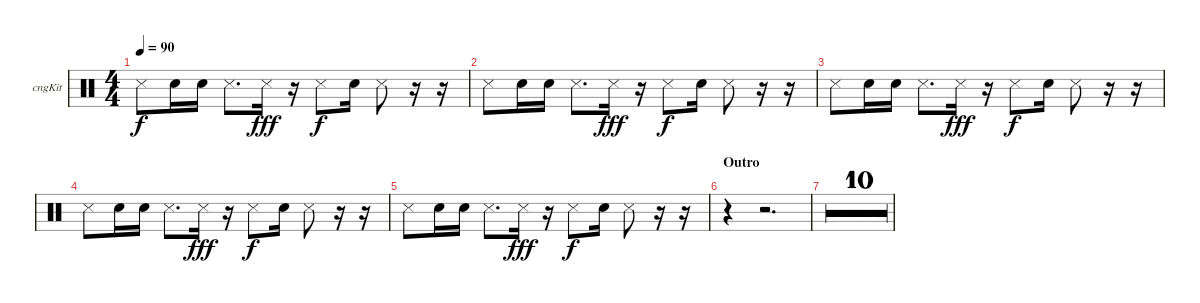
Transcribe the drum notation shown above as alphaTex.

\bracketExtendMode groupsimilarinstruments
\firstSystemTrackNameOrientation horizontal
\otherSystemsTrackNameOrientation horizontal
\track ("Congas" "cngKit") {multiBarRest instrument percussion}
\staff {score}
\articulation defaults
\ts (4 4)
\tempo 90
\clef neutral
\ks c "Snare (side stick) 3".8{dy f} "Snare (hit) 2".16 "Snare (hit) 2".16 "Snare (side stick) 3".8{d} "Snare (side stick) 3".16{dy fff}
r.16 "Snare (side stick) 3".8{dy f} "Snare (hit) 2".16 "Snare (side stick) 3".8 r.16 r.16 |
"Snare (side stick) 3".8 "Snare (hit) 2".16 "Snare (hit) 2".16 "Snare (side stick) 3".8{d} "Snare (side stick) 3".16{dy fff} r.16 "Snare (side stick) 3".8{dy f} "Snare (hit) 2".16 "Snare (side stick) 3".8 r.16 r.16 |
"Snare (side stick) 3".8 "Snare (hit) 2".16 "Snare (hit) 2".16 "Snare (side stick) 3".8{d} "Snare (side stick) 3".16{dy fff} r.16 "Snare (side stick) 3".8{dy f} "Snare (hit) 2".16 "Snare (side stick) 3".8 r.16 r.16 |
"Snare (side stick) 3".8 "Snare (hit) 2".16 "Snare (hit) 2".16 "Snare (side stick) 3".8{d} "Snare (side stick) 3".16{dy fff} r.16 "Snare (side stick) 3".8{dy f} "Snare (hit) 2".16 "Snare (side stick) 3".8 r.16 r.16 |
"Snare (side stick) 3".8 "Snare (hit) 2".16 "Snare (hit) 2".16 "Snare (side stick) 3".8{d} "Snare (side stick) 3".16{dy fff} r.16 "Snare (side stick) 3".8{dy f} "Snare (hit) 2".16 "Snare (side stick) 3".8 r.16 r.16 |
\section ("" "Outro")
r.4 r.2{d} |
r.4 r.2{d} |
r.4 r.2{d} |
r.4 r.2{d} |
r.4 r.2{d} |
r.4 r.2{d} |
r.4 r.2{d} |
r.4 r.2{d} |
r.4 r.2{d} |
r.4 r.2{d} |
r.4 r.2{d}
